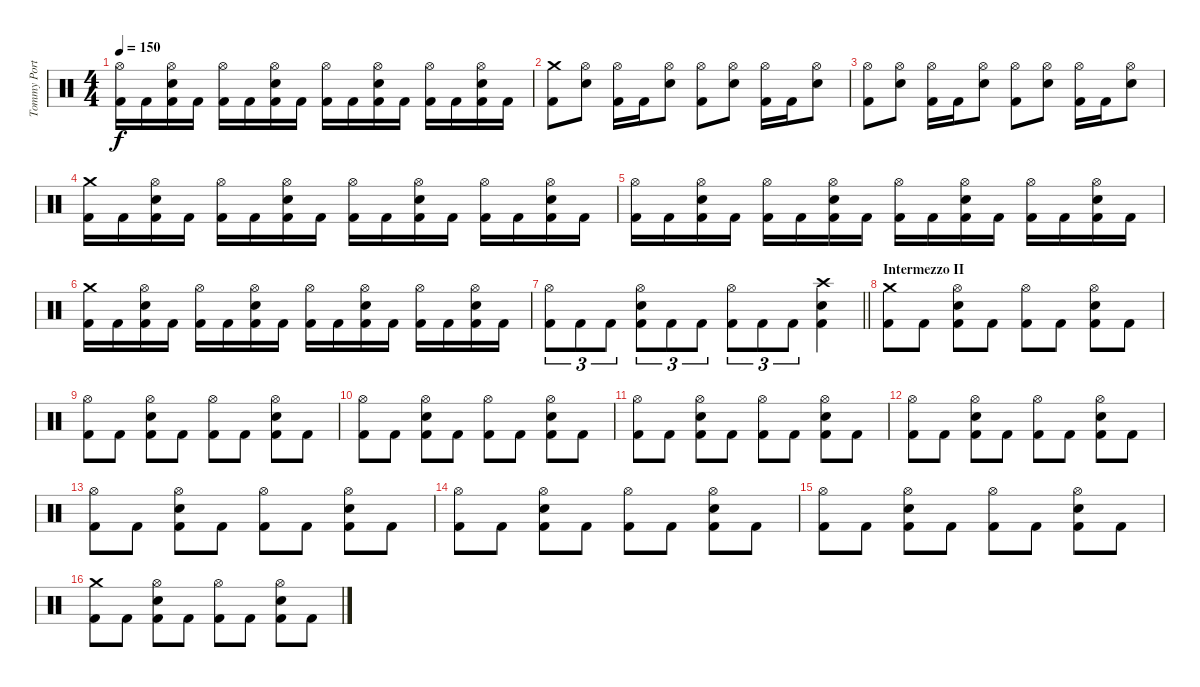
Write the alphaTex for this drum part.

\track ("Tommy Portimo" "Tommy Port") {instrument percussion}
\staff {score}
\articulation defaults
\ts (4 4)
\tempo 150
\clef neutral
\ks c
("Hi-Hat (open)" "Kick (hit) 2").16{dy f} "Kick (hit) 2".16 ("Hi-Hat (open)" "Electric Snare (hit)" "Kick (hit) 2").16 "Kick (hit) 2".16 ("Hi-Hat (open)" "Kick (hit) 2").16 "Kick (hit) 2".16 ("Hi-Hat (open)" "Electric Snare (hit)" "Kick (hit) 2").16 "Kick (hit) 2".16 ("Hi-Hat (open)" "Kick (hit) 2").16 "Kick (hit) 2".16 ("Hi-Hat (open)" "Electric Snare (hit)" "Kick (hit) 2").16 "Kick (hit) 2".16 ("Hi-Hat (open)" "Kick (hit) 2").16 "Kick (hit) 2".16 ("Hi-Hat (open)" "Electric Snare (hit)" "Kick (hit) 2").16 "Kick (hit) 2".16 |
("Crash medium (hit)" "Kick (hit) 2").8 ("Hi-Hat (open)" "Electric Snare (hit)").8 ("Hi-Hat (open)" "Kick (hit) 2").16 "Kick (hit) 2".16 ("Hi-Hat (open)" "Electric Snare (hit)").8 ("Hi-Hat (open)" "Kick (hit) 2").8 ("Hi-Hat (open)" "Electric Snare (hit)").8 ("Hi-Hat (open)" "Kick (hit) 2").16 "Kick (hit) 2".16 ("Hi-Hat (open)" "Electric Snare (hit)").8 |
("Hi-Hat (open)" "Kick (hit) 2").8 ("Hi-Hat (open)" "Electric Snare (hit)").8 ("Hi-Hat (open)" "Kick (hit) 2").16 "Kick (hit) 2".16 ("Hi-Hat (open)" "Electric Snare (hit)").8 ("Hi-Hat (open)" "Kick (hit) 2").8 ("Hi-Hat (open)" "Electric Snare (hit)").8 ("Hi-Hat (open)" "Kick (hit) 2").16 "Kick (hit) 2".16 ("Hi-Hat (open)" "Electric Snare (hit)").8 |
("Crash medium (hit)" "Kick (hit) 2").16 "Kick (hit) 2".16 ("Hi-Hat (open)" "Electric Snare (hit)" "Kick (hit) 2").16 "Kick (hit) 2".16 ("Hi-Hat (open)" "Kick (hit) 2").16 "Kick (hit) 2".16 ("Hi-Hat (open)" "Electric Snare (hit)" "Kick (hit) 2").16 "Kick (hit) 2".16 ("Hi-Hat (open)" "Kick (hit) 2").16 "Kick (hit) 2".16 ("Hi-Hat (open)" "Electric Snare (hit)" "Kick (hit) 2").16 "Kick (hit) 2".16 ("Hi-Hat (open)" "Kick (hit) 2").16 "Kick (hit) 2".16 ("Hi-Hat (open)" "Electric Snare (hit)" "Kick (hit) 2").16 "Kick (hit) 2".16 |
("Hi-Hat (open)" "Kick (hit) 2").16 "Kick (hit) 2".16 ("Hi-Hat (open)" "Electric Snare (hit)" "Kick (hit) 2").16 "Kick (hit) 2".16 ("Hi-Hat (open)" "Kick (hit) 2").16 "Kick (hit) 2".16 ("Hi-Hat (open)" "Electric Snare (hit)" "Kick (hit) 2").16 "Kick (hit) 2".16 ("Hi-Hat (open)" "Kick (hit) 2").16 "Kick (hit) 2".16 ("Hi-Hat (open)" "Electric Snare (hit)" "Kick (hit) 2").16 "Kick (hit) 2".16 ("Hi-Hat (open)" "Kick (hit) 2").16 "Kick (hit) 2".16 ("Hi-Hat (open)" "Electric Snare (hit)" "Kick (hit) 2").16 "Kick (hit) 2".16 |
("Crash medium (hit)" "Kick (hit) 2").16 "Kick (hit) 2".16 ("Hi-Hat (open)" "Electric Snare (hit)" "Kick (hit) 2").16 "Kick (hit) 2".16 ("Hi-Hat (open)" "Kick (hit) 2").16 "Kick (hit) 2".16 ("Hi-Hat (open)" "Electric Snare (hit)" "Kick (hit) 2").16 "Kick (hit) 2".16 ("Hi-Hat (open)" "Kick (hit) 2").16 "Kick (hit) 2".16 ("Hi-Hat (open)" "Electric Snare (hit)" "Kick (hit) 2").16 "Kick (hit) 2".16 ("Hi-Hat (open)" "Kick (hit) 2").16 "Kick (hit) 2".16 ("Hi-Hat (open)" "Electric Snare (hit)" "Kick (hit) 2").16 "Kick (hit) 2".16 |
\barLineRight lightlight
("Hi-Hat (open)" "Kick (hit) 2").8{tu (3 2)} "Kick (hit) 2".8{tu (3 2)} "Kick (hit) 2".8{tu (3 2)} ("Hi-Hat (open)" "Electric Snare (hit)" "Kick (hit) 2").8{tu (3 2)} "Kick (hit) 2".8{tu (3 2)} "Kick (hit) 2".8{tu (3 2)} ("Hi-Hat (open)" "Kick (hit) 2").8{tu (3 2)} "Kick (hit) 2".8{tu (3 2)} "Kick (hit) 2".8{tu (3 2)} ("Crash high (hit)" "Electric Snare (hit)" "Kick (hit) 2").4 |
\section ("" "Intermezzo II")
("Crash medium (hit)" "Kick (hit) 2").8 "Kick (hit) 2".8 ("Hi-Hat (open)" "Electric Snare (hit)" "Kick (hit) 2").8 "Kick (hit) 2".8 ("Hi-Hat (open)" "Kick (hit) 2").8 "Kick (hit) 2".8 ("Hi-Hat (open)" "Electric Snare (hit)" "Kick (hit) 2").8 "Kick (hit) 2".8 |
("Hi-Hat (open)" "Kick (hit) 2").8 "Kick (hit) 2".8 ("Hi-Hat (open)" "Electric Snare (hit)" "Kick (hit) 2").8 "Kick (hit) 2".8 ("Hi-Hat (open)" "Kick (hit) 2").8 "Kick (hit) 2".8 ("Hi-Hat (open)" "Electric Snare (hit)" "Kick (hit) 2").8 "Kick (hit) 2".8 |
("Hi-Hat (open)" "Kick (hit) 2").8 "Kick (hit) 2".8 ("Hi-Hat (open)" "Electric Snare (hit)" "Kick (hit) 2").8 "Kick (hit) 2".8 ("Hi-Hat (open)" "Kick (hit) 2").8 "Kick (hit) 2".8 ("Hi-Hat (open)" "Electric Snare (hit)" "Kick (hit) 2").8 "Kick (hit) 2".8 |
("Hi-Hat (open)" "Kick (hit) 2").8 "Kick (hit) 2".8 ("Hi-Hat (open)" "Electric Snare (hit)" "Kick (hit) 2").8 "Kick (hit) 2".8 ("Hi-Hat (open)" "Kick (hit) 2").8 "Kick (hit) 2".8 ("Hi-Hat (open)" "Electric Snare (hit)" "Kick (hit) 2").8 "Kick (hit) 2".8 |
("Hi-Hat (open)" "Kick (hit) 2").8 "Kick (hit) 2".8 ("Hi-Hat (open)" "Electric Snare (hit)" "Kick (hit) 2").8 "Kick (hit) 2".8 ("Hi-Hat (open)" "Kick (hit) 2").8 "Kick (hit) 2".8 ("Hi-Hat (open)" "Electric Snare (hit)" "Kick (hit) 2").8 "Kick (hit) 2".8 |
("Hi-Hat (open)" "Kick (hit) 2").8 "Kick (hit) 2".8 ("Hi-Hat (open)" "Electric Snare (hit)" "Kick (hit) 2").8 "Kick (hit) 2".8 ("Hi-Hat (open)" "Kick (hit) 2").8 "Kick (hit) 2".8 ("Hi-Hat (open)" "Electric Snare (hit)" "Kick (hit) 2").8 "Kick (hit) 2".8 |
("Hi-Hat (open)" "Kick (hit) 2").8 "Kick (hit) 2".8 ("Hi-Hat (open)" "Electric Snare (hit)" "Kick (hit) 2").8 "Kick (hit) 2".8 ("Hi-Hat (open)" "Kick (hit) 2").8 "Kick (hit) 2".8 ("Hi-Hat (open)" "Electric Snare (hit)" "Kick (hit) 2").8 "Kick (hit) 2".8 |
("Hi-Hat (open)" "Kick (hit) 2").8 "Kick (hit) 2".8 ("Hi-Hat (open)" "Electric Snare (hit)" "Kick (hit) 2").8 "Kick (hit) 2".8 ("Hi-Hat (open)" "Kick (hit) 2").8 "Kick (hit) 2".8 ("Hi-Hat (open)" "Electric Snare (hit)" "Kick (hit) 2").8 "Kick (hit) 2".8 |
("Crash medium (hit)" "Kick (hit) 2").8 "Kick (hit) 2".8 ("Hi-Hat (open)" "Electric Snare (hit)" "Kick (hit) 2").8 "Kick (hit) 2".8 ("Hi-Hat (open)" "Kick (hit) 2").8 "Kick (hit) 2".8 ("Hi-Hat (open)" "Electric Snare (hit)" "Kick (hit) 2").8 "Kick (hit) 2".8
